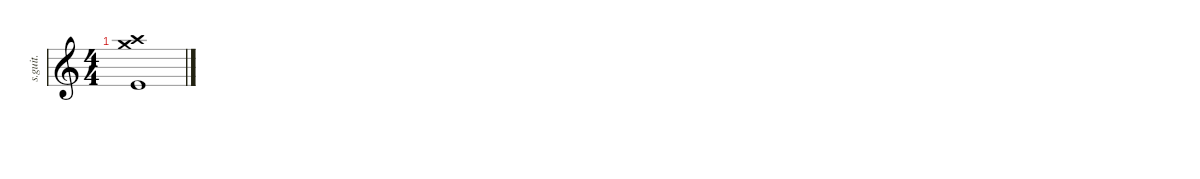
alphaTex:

\defaultSystemsLayout 4
\hideDynamics
\bracketExtendMode nobrackets
\track ("Dave Grohl" "s.guit.") {instrument percussion}
\staff {score}
\articulation defaults
\ts (4 4)
\tempo (210 hide)
\clef g2
\ks c
("Crash high (hit)" "Crash medium (hit)" "Kick (hit)").1{lyrics (0 "") lyrics (1 "") lyrics (2 "") lyrics (3 "") lyrics (4 "") dy mf}
